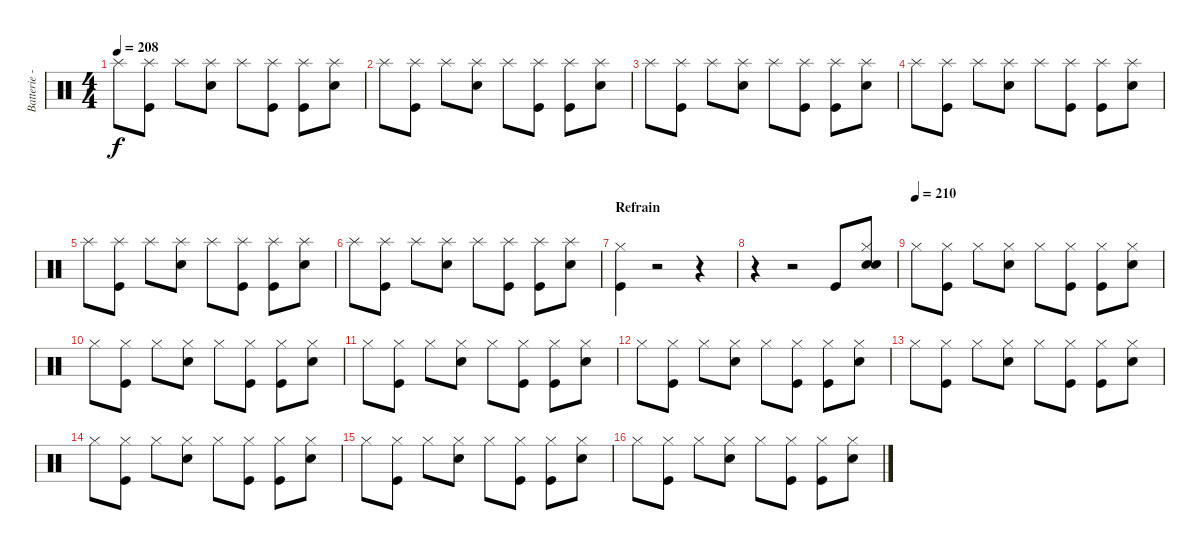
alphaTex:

\track ("Batterie - Guillaume" "Batterie -") {instrument percussion}
\staff {score}
\articulation defaults
\ts (4 4)
\tempo 208
\clef neutral
\ks c "Splash (hit)".8{dy f}
("Splash (hit)" "Kick (hit)").8 "Splash (hit)".8 ("Splash (hit)" "Snare (hit) 2").8 "Splash (hit)".8 ("Splash (hit)" "Kick (hit)").8 ("Splash (hit)" "Kick (hit)").8 ("Splash (hit)" "Snare (hit) 2").8 |
"Splash (hit)".8 ("Splash (hit)" "Kick (hit)").8 "Splash (hit)".8 ("Splash (hit)" "Snare (hit) 2").8 "Splash (hit)".8 ("Splash (hit)" "Kick (hit)").8 ("Splash (hit)" "Kick (hit)").8 ("Splash (hit)" "Snare (hit) 2").8 |
"Splash (hit)".8 ("Splash (hit)" "Kick (hit)").8 "Splash (hit)".8 ("Splash (hit)" "Snare (hit) 2").8 "Splash (hit)".8 ("Splash (hit)" "Kick (hit)").8 ("Splash (hit)" "Kick (hit)").8 ("Splash (hit)" "Snare (hit) 2").8 |
"Splash (hit)".8 ("Splash (hit)" "Kick (hit)").8 "Splash (hit)".8 ("Splash (hit)" "Snare (hit) 2").8 "Splash (hit)".8 ("Splash (hit)" "Kick (hit)").8 ("Splash (hit)" "Kick (hit)").8 ("Splash (hit)" "Snare (hit) 2").8 |
"Splash (hit)".8 ("Splash (hit)" "Kick (hit)").8 "Splash (hit)".8 ("Splash (hit)" "Snare (hit) 2").8 "Splash (hit)".8 ("Splash (hit)" "Kick (hit)").8 ("Splash (hit)" "Kick (hit)").8 ("Splash (hit)" "Snare (hit) 2").8 |
"Splash (hit)".8 ("Splash (hit)" "Kick (hit)").8 "Splash (hit)".8 ("Splash (hit)" "Snare (hit) 2").8 "Splash (hit)".8 ("Splash (hit)" "Kick (hit)").8 ("Splash (hit)" "Kick (hit)").8 ("Splash (hit)" "Snare (hit) 2").8 |
\section ("" "Refrain")
("Hi-Hat (closed)" "Kick (hit)").4 r.2 r.4 |
r.4 r.2 "Kick (hit)".8 ("Hi-Hat (closed)" "Snare (hit) 2" "Hand Clap (hit)").8 |
\tempo (210)
"Hi-Hat (closed)".8 ("Hi-Hat (closed)" "Kick (hit)").8 "Hi-Hat (closed)".8 ("Hi-Hat (closed)" "Snare (hit) 2").8 "Hi-Hat (closed)".8 ("Hi-Hat (closed)" "Kick (hit)").8 ("Hi-Hat (closed)" "Kick (hit)").8 ("Hi-Hat (closed)" "Snare (hit) 2").8 |
"Hi-Hat (closed)".8 ("Hi-Hat (closed)" "Kick (hit)").8 "Hi-Hat (closed)".8 ("Hi-Hat (closed)" "Snare (hit) 2").8 "Hi-Hat (closed)".8 ("Hi-Hat (closed)" "Kick (hit)").8 ("Hi-Hat (closed)" "Kick (hit)").8 ("Hi-Hat (closed)" "Snare (hit) 2").8 |
"Hi-Hat (closed)".8 ("Hi-Hat (closed)" "Kick (hit)").8 "Hi-Hat (closed)".8 ("Hi-Hat (closed)" "Snare (hit) 2").8 "Hi-Hat (closed)".8 ("Hi-Hat (closed)" "Kick (hit)").8 ("Hi-Hat (closed)" "Kick (hit)").8 ("Hi-Hat (closed)" "Snare (hit) 2").8 |
"Hi-Hat (closed)".8 ("Hi-Hat (closed)" "Kick (hit)").8 "Hi-Hat (closed)".8 ("Hi-Hat (closed)" "Snare (hit) 2").8 "Hi-Hat (closed)".8 ("Hi-Hat (closed)" "Kick (hit)").8 ("Hi-Hat (closed)" "Kick (hit)").8 ("Hi-Hat (closed)" "Snare (hit) 2").8 |
"Hi-Hat (closed)".8 ("Hi-Hat (closed)" "Kick (hit)").8 "Hi-Hat (closed)".8 ("Hi-Hat (closed)" "Snare (hit) 2").8 "Hi-Hat (closed)".8 ("Hi-Hat (closed)" "Kick (hit)").8 ("Hi-Hat (closed)" "Kick (hit)").8 ("Hi-Hat (closed)" "Snare (hit) 2").8 |
"Hi-Hat (closed)".8 ("Hi-Hat (closed)" "Kick (hit)").8 "Hi-Hat (closed)".8 ("Hi-Hat (closed)" "Snare (hit) 2").8 "Hi-Hat (closed)".8 ("Hi-Hat (closed)" "Kick (hit)").8 ("Hi-Hat (closed)" "Kick (hit)").8 ("Hi-Hat (closed)" "Snare (hit) 2").8 |
"Hi-Hat (closed)".8 ("Hi-Hat (closed)" "Kick (hit)").8 "Hi-Hat (closed)".8 ("Hi-Hat (closed)" "Snare (hit) 2").8 "Hi-Hat (closed)".8 ("Hi-Hat (closed)" "Kick (hit)").8 ("Hi-Hat (closed)" "Kick (hit)").8 ("Hi-Hat (closed)" "Snare (hit) 2").8 |
"Hi-Hat (closed)".8 ("Hi-Hat (closed)" "Kick (hit)").8 "Hi-Hat (closed)".8 ("Hi-Hat (closed)" "Snare (hit) 2").8 "Hi-Hat (closed)".8 ("Hi-Hat (closed)" "Kick (hit)").8 ("Hi-Hat (closed)" "Kick (hit)").8 ("Hi-Hat (closed)" "Snare (hit) 2").8
